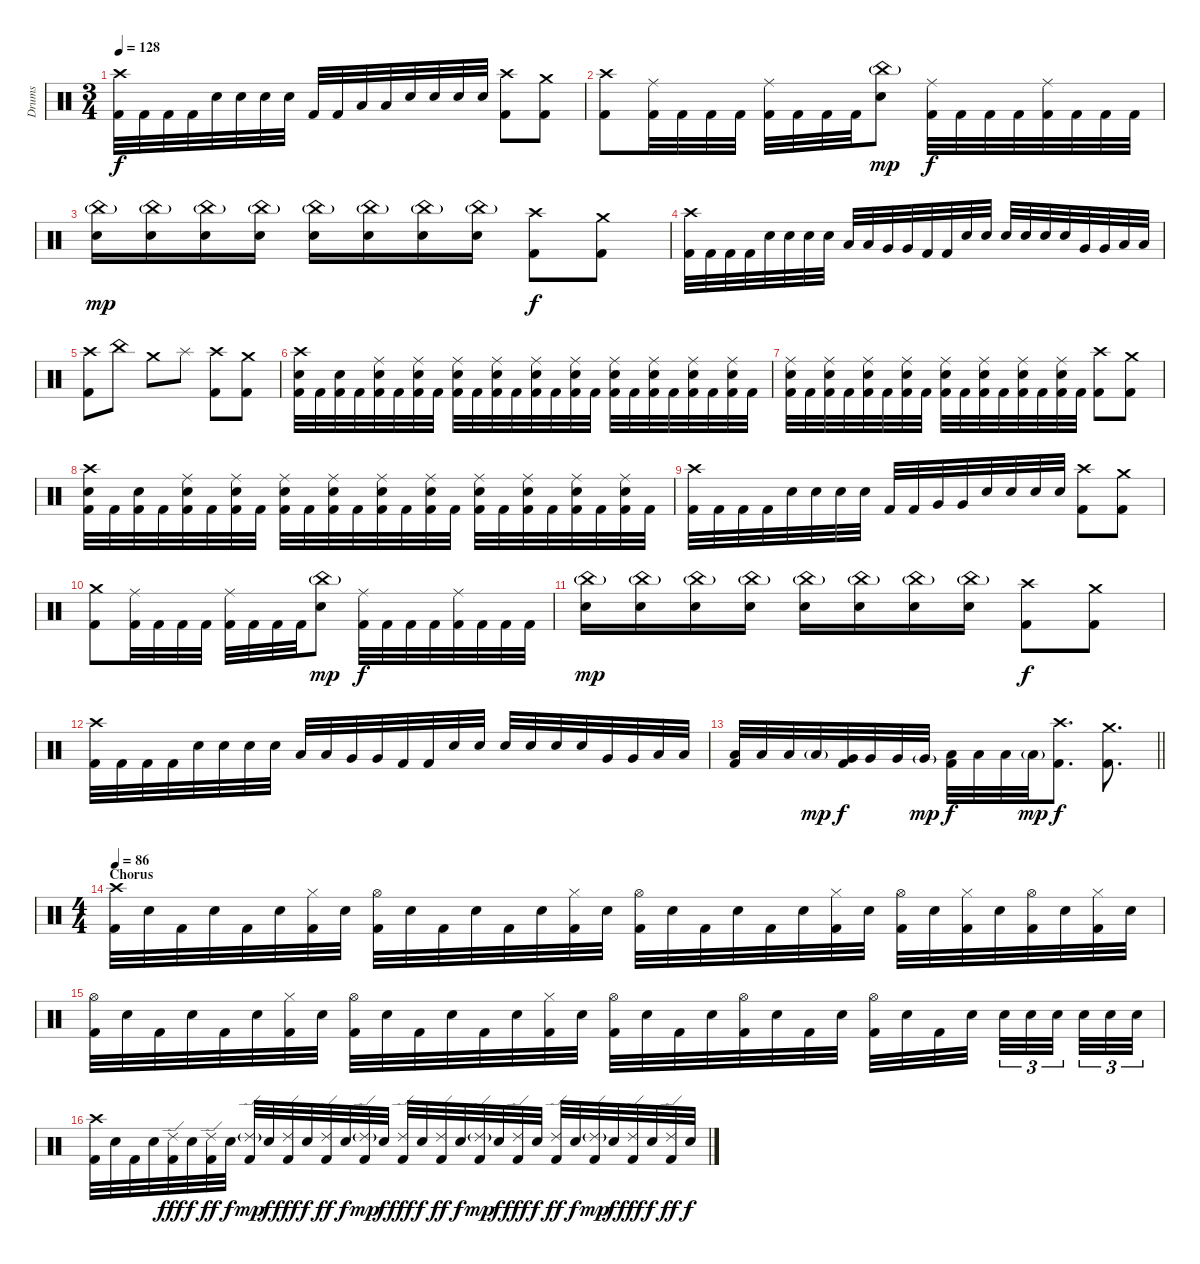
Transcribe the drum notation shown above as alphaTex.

\track ("Drums" "Drums") {instrument percussion}
\staff {score}
\articulation defaults
\ts (3 4)
\tempo 128
\clef neutral
\ks c
("Crash high (hit)" "Kick (hit) 2").32{dy f} "Kick (hit) 2".32 "Kick (hit) 2".32 "Kick (hit) 2".32 "Snare (hit) 2".32 "Snare (hit) 2".32 "Snare (hit) 2".32 "Snare (hit) 2".32 "Kick (hit) 2".32 "Kick (hit) 2".32 "Low Tom (hit)".32 "Low Tom (hit)".32 "Snare (hit) 2".32 "Snare (hit) 2".32 "Snare (hit) 2".32 "Snare (hit) 2".32 ("Crash high (hit)" "Kick (hit) 2").8 ("Crash medium (hit)" "Kick (hit) 2").8 |
("Crash high (hit)" "Kick (hit) 2").8 ("Ride (middle)" "Kick (hit) 2").32 "Kick (hit) 2".32 "Kick (hit) 2".32 "Kick (hit) 2".32 ("Ride (middle)" "Kick (hit) 2").32 "Kick (hit) 2".32 "Kick (hit) 2".32 "Kick (hit) 2".32 ("China (hit)"{g} "Snare (hit) 2").8{dy mp} ("Ride (middle)" "Kick (hit) 2").32{dy f} "Kick (hit) 2".32 "Kick (hit) 2".32 "Kick (hit) 2".32 ("Ride (middle)" "Kick (hit) 2").32 "Kick (hit) 2".32 "Kick (hit) 2".32 "Kick (hit) 2".32 |
("China (hit)"{g} "Snare (hit) 2").16{dy mp} ("China (hit)"{g} "Snare (hit) 2").16 ("China (hit)"{g} "Snare (hit) 2").16 ("China (hit)"{g} "Snare (hit) 2").16 ("China (hit)"{g} "Snare (hit) 2").16 ("China (hit)"{g} "Snare (hit) 2").16 ("China (hit)"{g} "Snare (hit) 2").16 ("China (hit)"{g} "Snare (hit) 2").16 ("Crash high (hit)" "Kick (hit) 2").8{dy f} ("Crash medium (hit)" "Kick (hit) 2").8 |
("Crash high (hit)" "Kick (hit) 2").32 "Kick (hit) 2".32 "Kick (hit) 2".32 "Kick (hit) 2".32 "Snare (hit) 2".32 "Snare (hit) 2".32 "Snare (hit) 2".32 "Snare (hit) 2".32 "Low Tom (hit)".32 "Low Tom (hit)".32 "Very Low Tom (hit)".32 "Very Low Tom (hit)".32 "Kick (hit) 2".32 "Kick (hit) 2".32 "Snare (hit) 2".32 "Snare (hit) 2".32 "Snare (hit) 2".32 "Snare (hit) 2".32 "Snare (hit) 2".32 "Snare (hit) 2".32 "Very Low Tom (hit)".32 "Very Low Tom (hit)".32 "Low Floor Tom (hit)".32 "Low Floor Tom (hit)".32 |
("Crash high (hit)" "Kick (hit) 2").8 "China (hit)".8 "Crash medium (hit)".8 "Splash (hit)".8 ("Crash high (hit)" "Kick (hit) 2").8 ("Crash medium (hit)" "Kick (hit) 2").8 |
("Crash high (hit)" "Snare (hit) 2" "Kick (hit) 2").32 "Kick (hit) 2".32 ("Snare (hit) 2" "Kick (hit) 2").32 "Kick (hit) 2".32 ("Ride (middle)" "Snare (hit) 2" "Kick (hit) 2").32 "Kick (hit) 2".32 ("Ride (middle)" "Snare (hit) 2" "Kick (hit) 2").32 "Kick (hit) 2".32 ("Ride (middle)" "Snare (hit) 2" "Kick (hit) 2").32 "Kick (hit) 2".32 ("Ride (middle)" "Snare (hit) 2" "Kick (hit) 2").32 "Kick (hit) 2".32 ("Ride (middle)" "Snare (hit) 2" "Kick (hit) 2").32 "Kick (hit) 2".32 ("Ride (middle)" "Snare (hit) 2" "Kick (hit) 2").32 "Kick (hit) 2".32 ("Ride (middle)" "Snare (hit) 2" "Kick (hit) 2").32 "Kick (hit) 2".32 ("Ride (middle)" "Snare (hit) 2" "Kick (hit) 2").32 "Kick (hit) 2".32 ("Ride (middle)" "Snare (hit) 2" "Kick (hit) 2").32 "Kick (hit) 2".32 ("Ride (middle)" "Snare (hit) 2" "Kick (hit) 2").32 "Kick (hit) 2".32 |
("Ride (middle)" "Snare (hit) 2" "Kick (hit) 2").32 "Kick (hit) 2".32 ("Ride (middle)" "Snare (hit) 2" "Kick (hit) 2").32 "Kick (hit) 2".32 ("Ride (middle)" "Snare (hit) 2" "Kick (hit) 2").32 "Kick (hit) 2".32 ("Ride (middle)" "Snare (hit) 2" "Kick (hit) 2").32 "Kick (hit) 2".32 ("Ride (middle)" "Snare (hit) 2" "Kick (hit) 2").32 "Kick (hit) 2".32 ("Ride (middle)" "Snare (hit) 2" "Kick (hit) 2").32 "Kick (hit) 2".32 ("Ride (middle)" "Snare (hit) 2" "Kick (hit) 2").32 "Kick (hit) 2".32 ("Ride (middle)" "Snare (hit) 2" "Kick (hit) 2").32 "Kick (hit) 2".32 ("Crash high (hit)" "Kick (hit) 2").8 ("Crash medium (hit)" "Kick (hit) 2").8 |
("Crash high (hit)" "Snare (hit) 2" "Kick (hit) 2").32 "Kick (hit) 2".32 ("Snare (hit) 2" "Kick (hit) 2").32 "Kick (hit) 2".32 ("Ride (middle)" "Snare (hit) 2" "Kick (hit) 2").32 "Kick (hit) 2".32 ("Ride (middle)" "Snare (hit) 2" "Kick (hit) 2").32 "Kick (hit) 2".32 ("Ride (middle)" "Snare (hit) 2" "Kick (hit) 2").32 "Kick (hit) 2".32 ("Ride (middle)" "Snare (hit) 2" "Kick (hit) 2").32 "Kick (hit) 2".32 ("Ride (middle)" "Snare (hit) 2" "Kick (hit) 2").32 "Kick (hit) 2".32 ("Ride (middle)" "Snare (hit) 2" "Kick (hit) 2").32 "Kick (hit) 2".32 ("Ride (middle)" "Snare (hit) 2" "Kick (hit) 2").32 "Kick (hit) 2".32 ("Ride (middle)" "Snare (hit) 2" "Kick (hit) 2").32 "Kick (hit) 2".32 ("Ride (middle)" "Snare (hit) 2" "Kick (hit) 2").32 "Kick (hit) 2".32 ("Ride (middle)" "Snare (hit) 2" "Kick (hit) 2").32 "Kick (hit) 2".32 |
("Crash high (hit)" "Kick (hit) 2").32 "Kick (hit) 2".32 "Kick (hit) 2".32 "Kick (hit) 2".32 "Snare (hit) 2".32 "Snare (hit) 2".32 "Snare (hit) 2".32 "Snare (hit) 2".32 "Kick (hit) 2".32 "Kick (hit) 2".32 "Very Low Tom (hit)".32 "Very Low Tom (hit)".32 "Snare (hit) 2".32 "Snare (hit) 2".32 "Snare (hit) 2".32 "Snare (hit) 2".32 ("Crash high (hit)" "Kick (hit) 2").8 ("Crash medium (hit)" "Kick (hit) 2").8 |
("Crash medium (hit)" "Kick (hit) 2").8 ("Ride (middle)" "Kick (hit) 2").32 "Kick (hit) 2".32 "Kick (hit) 2".32 "Kick (hit) 2".32 ("Ride (middle)" "Kick (hit) 2").32 "Kick (hit) 2".32 "Kick (hit) 2".32 "Kick (hit) 2".32 ("China (hit)"{g} "Snare (hit) 2").8{dy mp} ("Ride (middle)" "Kick (hit) 2").32{dy f} "Kick (hit) 2".32 "Kick (hit) 2".32 "Kick (hit) 2".32 ("Ride (middle)" "Kick (hit) 2").32 "Kick (hit) 2".32 "Kick (hit) 2".32 "Kick (hit) 2".32 |
("China (hit)"{g} "Snare (hit) 2").16{dy mp} ("China (hit)"{g} "Snare (hit) 2").16 ("China (hit)"{g} "Snare (hit) 2").16 ("China (hit)"{g} "Snare (hit) 2").16 ("China (hit)"{g} "Snare (hit) 2").16 ("China (hit)"{g} "Snare (hit) 2").16 ("China (hit)"{g} "Snare (hit) 2").16 ("China (hit)"{g} "Snare (hit) 2").16 ("Crash high (hit)" "Kick (hit) 2").8{dy f} ("Crash medium (hit)" "Kick (hit) 2").8 |
("Crash high (hit)" "Kick (hit) 2").32 "Kick (hit) 2".32 "Kick (hit) 2".32 "Kick (hit) 2".32 "Snare (hit) 2".32 "Snare (hit) 2".32 "Snare (hit) 2".32 "Snare (hit) 2".32 "Low Tom (hit)".32 "Low Tom (hit)".32 "Very Low Tom (hit)".32 "Very Low Tom (hit)".32 "Kick (hit) 2".32 "Kick (hit) 2".32 "Snare (hit) 2".32 "Snare (hit) 2".32 "Snare (hit) 2".32 "Snare (hit) 2".32 "Snare (hit) 2".32 "Snare (hit) 2".32 "Very Low Tom (hit)".32 "Very Low Tom (hit)".32 "Low Floor Tom (hit)".32 "Low Floor Tom (hit)".32 |
\barLineRight lightlight
("Low Tom (hit)" "Kick (hit) 2").32 "Low Tom (hit)".32 "Low Tom (hit)".32 "Low Tom (hit)"{g}.32{dy mp} ("Very Low Tom (hit)" "Kick (hit) 2").32{dy f} "Very Low Tom (hit)".32 "Very Low Tom (hit)".32 "Very Low Tom (hit)"{g}.32{dy mp} ("Low Floor Tom (hit)" "Kick (hit) 2").32{dy f} "Low Floor Tom (hit)".32 "Low Floor Tom (hit)".32 "Low Floor Tom (hit)"{g}.32{dy mp} ("Crash high (hit)" "Kick (hit) 2").8{d dy f} ("Crash medium (hit)" "Kick (hit) 2").8{d} |
\ts (4 4)
\section ("" "Chorus")
\tempo 86
("Crash high (hit)" "Kick (hit) 2").32 "Snare (hit) 2".32 "Kick (hit) 2".32 "Snare (hit) 2".32 "Kick (hit) 2".32 "Snare (hit) 2".32 ("Hi-Hat (closed)" "Kick (hit) 2").32 "Snare (hit) 2".32 ("Hi-Hat (open)" "Kick (hit) 2").32 "Snare (hit) 2".32 "Kick (hit) 2".32 "Snare (hit) 2".32 "Kick (hit) 2".32 "Snare (hit) 2".32 ("Hi-Hat (closed)" "Kick (hit) 2").32 "Snare (hit) 2".32 ("Hi-Hat (open)" "Kick (hit) 2").32 "Snare (hit) 2".32 "Kick (hit) 2".32 "Snare (hit) 2".32 "Kick (hit) 2".32 "Snare (hit) 2".32 ("Hi-Hat (closed)" "Kick (hit) 2").32 "Snare (hit) 2".32 ("Hi-Hat (open)" "Kick (hit) 2").32 "Snare (hit) 2".32 ("Hi-Hat (closed)" "Kick (hit) 2").32 "Snare (hit) 2".32 ("Hi-Hat (open)" "Kick (hit) 2").32 "Snare (hit) 2".32 ("Hi-Hat (closed)" "Kick (hit) 2").32 "Snare (hit) 2".32 |
("Hi-Hat (open)" "Kick (hit) 2").32 "Snare (hit) 2".32 "Kick (hit) 2".32 "Snare (hit) 2".32 "Kick (hit) 2".32 "Snare (hit) 2".32 ("Hi-Hat (closed)" "Kick (hit) 2").32 "Snare (hit) 2".32 ("Hi-Hat (open)" "Kick (hit) 2").32 "Snare (hit) 2".32 "Kick (hit) 2".32 "Snare (hit) 2".32 "Kick (hit) 2".32 "Snare (hit) 2".32 ("Hi-Hat (closed)" "Kick (hit) 2").32 "Snare (hit) 2".32 ("Hi-Hat (open)" "Kick (hit) 2").32 "Snare (hit) 2".32 "Kick (hit) 2".32 "Snare (hit) 2".32 ("Hi-Hat (open)" "Kick (hit) 2").32 "Snare (hit) 2".32 "Kick (hit) 2".32 "Snare (hit) 2".32 ("Hi-Hat (open)" "Kick (hit) 2").32 "Snare (hit) 2".32 "Kick (hit) 2".32 "Snare (hit) 2".32{beam splitsecondary} "Snare (hit) 2".32{tu (3 2)} "Snare (hit) 2".32{tu (3 2)} "Snare (hit) 2".32{tu (3 2) beam splitsecondary} "Snare (hit) 2".32{tu (3 2)} "Snare (hit) 2".32{tu (3 2)} "Snare (hit) 2".32{tu (3 2)} |
("Crash high (hit)" "Kick (hit) 2").32 "Snare (hit) 2".32 "Kick (hit) 2".32 "Snare (hit) 2".32 ("Ride (edge) 2" "Kick (hit) 2").32{dy fff} "Snare (hit) 2".32{dy f} ("Ride (edge) 2" "Kick (hit) 2").32{dy ff} "Snare (hit) 2".32{dy f} ("Ride (edge) 2"{g} "Kick (hit) 2").32{dy mp} "Snare (hit) 2".32{dy f} ("Ride (edge) 2" "Kick (hit) 2").32{dy fff} "Snare (hit) 2".32{dy f} ("Ride (edge) 2" "Kick (hit) 2").32{dy ff} "Snare (hit) 2".32{dy f} ("Ride (edge) 2"{g} "Kick (hit) 2").32{dy mp} "Snare (hit) 2".32{dy f} ("Ride (edge) 2" "Kick (hit) 2").32{dy fff} "Snare (hit) 2".32{dy f} ("Ride (edge) 2" "Kick (hit) 2").32{dy ff} "Snare (hit) 2".32{dy f} ("Ride (edge) 2"{g} "Kick (hit) 2").32{dy mp} "Snare (hit) 2".32{dy f} ("Ride (edge) 2" "Kick (hit) 2").32{dy fff} "Snare (hit) 2".32{dy f} ("Ride (edge) 2" "Kick (hit) 2").32{dy ff} "Snare (hit) 2".32{dy f} ("Ride (edge) 2"{g} "Kick (hit) 2").32{dy mp} "Snare (hit) 2".32{dy f} ("Ride (edge) 2" "Kick (hit) 2").32{dy fff} "Snare (hit) 2".32{dy f} ("Ride (edge) 2" "Kick (hit) 2").32{dy ff} "Snare (hit) 2".32{dy f}
